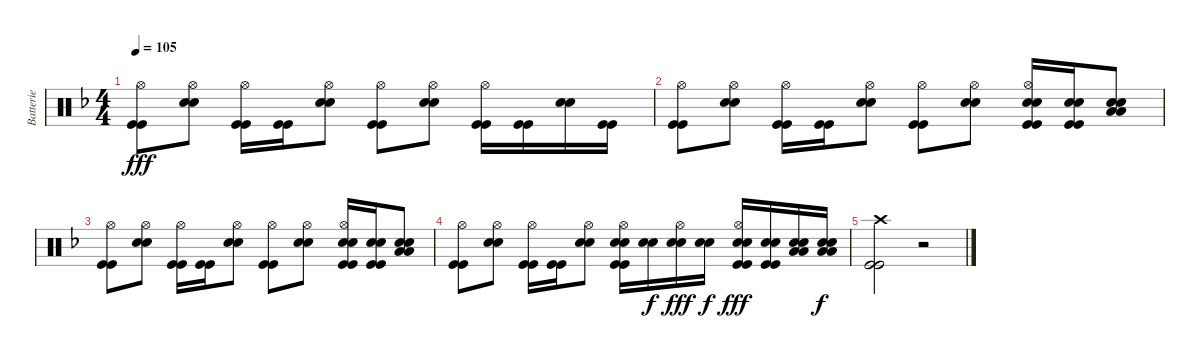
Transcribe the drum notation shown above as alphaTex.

\track ("Batterie" "Batterie") {instrument percussion}
\staff {score}
\articulation defaults
\ts (4 4)
\tempo 105
\clef neutral
\ks f
("Kick (hit)" "Kick (hit)" "Hi-Hat (open)").8{dy fff} ("Snare (hit) 2" "Snare (hit) 2" "Hi-Hat (open)").8 ("Kick (hit)" "Kick (hit)" "Hi-Hat (open)").16 ("Kick (hit)" "Kick (hit)").16 ("Snare (hit) 2" "Snare (hit) 2" "Hi-Hat (open)").8 ("Kick (hit)" "Kick (hit)" "Hi-Hat (open)").8 ("Snare (hit) 2" "Snare (hit) 2" "Hi-Hat (open)").8 ("Kick (hit)" "Kick (hit)" "Hi-Hat (open)").16 ("Kick (hit)" "Kick (hit)").16 ("Snare (hit) 2" "Snare (hit) 2").16 ("Kick (hit)" "Kick (hit)").16 |
("Kick (hit)" "Kick (hit)" "Hi-Hat (open)").8 ("Snare (hit) 2" "Snare (hit) 2" "Hi-Hat (open)").8 ("Kick (hit)" "Kick (hit)" "Hi-Hat (open)").16 ("Kick (hit)" "Kick (hit)").16 ("Snare (hit) 2" "Snare (hit) 2" "Hi-Hat (open)").8 ("Kick (hit)" "Kick (hit)" "Hi-Hat (open)").8 ("Snare (hit) 2" "Snare (hit) 2" "Hi-Hat (open)").8 ("Kick (hit)" "Kick (hit)" "Snare (hit) 2" "Snare (hit) 2" "Hi-Hat (open)").16 ("Kick (hit)" "Kick (hit)" "Snare (hit) 2" "Snare (hit) 2").16 ("Low Floor Tom (hit)" "Low Floor Tom (hit)" "Snare (hit) 2" "Snare (hit) 2").8 |
("Kick (hit)" "Kick (hit)" "Hi-Hat (open)").8 ("Snare (hit) 2" "Snare (hit) 2" "Hi-Hat (open)").8 ("Kick (hit)" "Kick (hit)" "Hi-Hat (open)").16 ("Kick (hit)" "Kick (hit)").16 ("Snare (hit) 2" "Snare (hit) 2" "Hi-Hat (open)").8 ("Kick (hit)" "Kick (hit)" "Hi-Hat (open)").8 ("Snare (hit) 2" "Snare (hit) 2" "Hi-Hat (open)").8 ("Kick (hit)" "Kick (hit)" "Snare (hit) 2" "Snare (hit) 2" "Hi-Hat (open)").16 ("Kick (hit)" "Kick (hit)" "Snare (hit) 2" "Snare (hit) 2").16 ("Low Floor Tom (hit)" "Low Floor Tom (hit)" "Snare (hit) 2" "Snare (hit) 2").8 |
("Kick (hit)" "Kick (hit)" "Hi-Hat (open)").8 ("Snare (hit) 2" "Snare (hit) 2" "Hi-Hat (open)").8 ("Kick (hit)" "Kick (hit)" "Hi-Hat (open)").16 ("Kick (hit)" "Kick (hit)").16 ("Snare (hit) 2" "Snare (hit) 2" "Hi-Hat (open)").8 ("Kick (hit)" "Kick (hit)" "Snare (hit) 2" "Snare (hit) 2" "Hi-Hat (open)").16 ("Snare (hit) 2" "Snare (hit) 2").16{dy f} ("Snare (hit) 2" "Snare (hit) 2" "Hi-Hat (open)").16{dy fff} ("Snare (hit) 2" "Snare (hit)").16{dy f} ("Kick (hit)" "Kick (hit)" "Snare (hit) 2" "Snare (hit) 2" "Hi-Hat (open)").16{dy fff} ("Kick (hit)" "Kick (hit)" "Snare (hit) 2" "Snare (hit) 2").16 ("Low Floor Tom (hit)" "Low Floor Tom (hit)" "Snare (hit) 2" "Snare (hit) 2").16 ("Low Floor Tom (hit)" "Low Floor Tom (hit)" "Snare (hit) 2" "Snare (hit) 2").16{dy f} |
("Kick (hit)" "Kick (hit)" "Crash high (hit)").2 r.2
